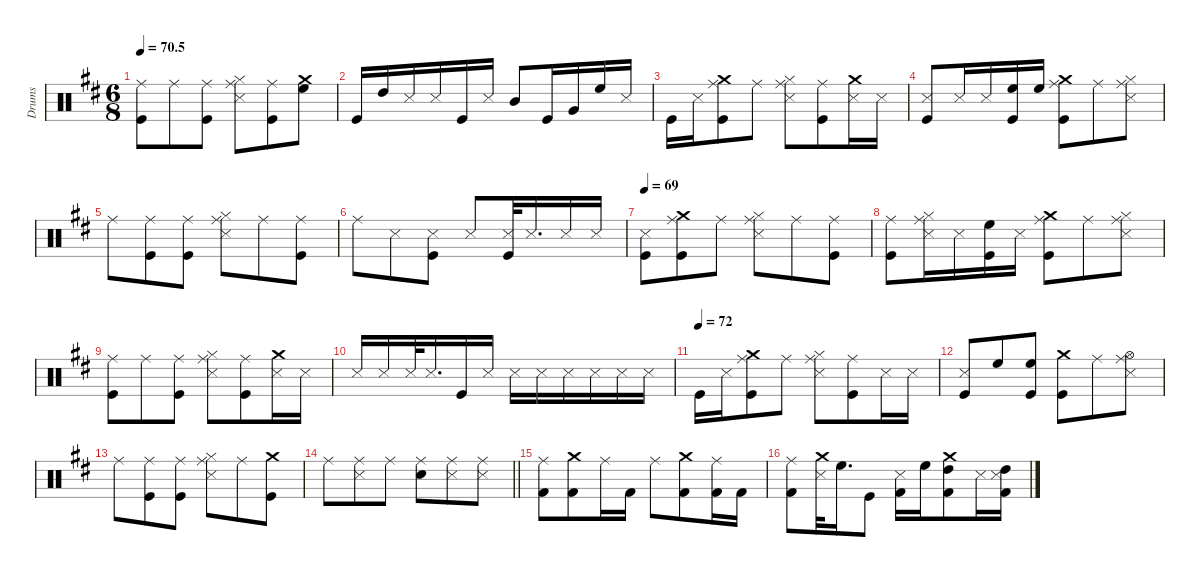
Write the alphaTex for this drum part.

\defaultSystemsLayout 4
\hideDynamics
\bracketExtendMode groupsimilarinstruments
\firstSystemTrackNameMode fullname
\otherSystemsTrackNameOrientation horizontal
\track ("Drums" "drm.") {defaultSystemsLayout 4 instrument percussion}
\staff {score}
\articulation defaults
\ts (6 8)
\tempo
70.5
\accidentals auto
\clef neutral
\ottava regular
\simile none
\ks bminor
("Kick (hit)"{acc forcenatural} "Ride (middle)"{acc #}).8{dy fff beam Down} "Ride (middle)"{acc #}.8{dy f beam Down} ("Kick (hit)"{acc forcenatural} "Ride (middle)"{acc #}).8{beam Down} ("Hi-Hat (closed)"{acc #} "Ride (middle)"{acc #} "Snare (side stick) 3"{acc forcenatural}).8{dy fff beam Down} ("Kick (hit)"{acc forcenatural} "Ride (middle)"{acc #}).8{dy f beam Down} ("High Floor Tom (hit)"{acc forcenatural} "Crash medium (hit)"{acc forcenatural}).8{dy fff beam Down} |
"Kick (hit)"{acc forcenatural}.16{dy f beam Up} "High Tom (hit)"{acc forcenatural}.16{beam Up} "Snare (side stick) 3"{acc forcenatural}.16{beam Up} "Snare (side stick) 3"{acc forcenatural}.16{dy mf beam Up} "Kick (hit)"{acc forcenatural}.16{dy f beam Up} "Snare (side stick) 3"{acc forcenatural}.16{beam Up} "Mid Tom (hit)"{acc forcenatural}.8{beam Up} "Kick (hit)"{acc forcenatural}.16{beam Up} "Very Low Tom (hit)"{acc forcenatural}.16{beam Up} "High Floor Tom (hit)"{acc forcenatural}.16{dy mp beam Up} "Snare (side stick) 3"{acc forcenatural}.16{beam Up} |
"Kick (hit)"{acc forcenatural}.16{dy f beam Down} "Snare (side stick) 3"{acc forcenatural}.16{beam Down} ("Crash medium (hit)"{acc forcenatural} "Kick (hit)"{acc forcenatural} "Ride (middle)"{acc #}).8{dy fff beam Down} "Ride (middle)"{acc #}.8{dy f beam Down} ("Snare (side stick) 3"{acc forcenatural} "Hi-Hat (closed)"{acc #} "Ride (middle)"{acc #}).8{dy fff beam Down} ("Kick (hit)"{acc forcenatural} "Ride (middle)"{acc #}).8{beam Down} ("Snare (side stick) 3"{acc forcenatural} "Crash medium (hit)"{acc forcenatural}).16{dy p beam Down} "Snare (side stick) 3"{acc forcenatural}.16{beam Down} |
("Kick (hit)"{acc forcenatural} "Snare (side stick) 3"{acc forcenatural}).8{dy f beam Up} "Snare (side stick) 3"{acc forcenatural}.16{beam Up} "Snare (side stick) 3"{acc forcenatural}.16{dy mf beam Up} ("Kick (hit)"{acc forcenatural} "High Floor Tom (hit)"{acc forcenatural}).16{dy f beam Up} "High Floor Tom (hit)"{acc forcenatural}.16{beam Up} ("Crash medium (hit)"{acc forcenatural} "Kick (hit)"{acc forcenatural} "Ride (middle)"{acc #}).8{dy fff beam Down} "Ride (middle)"{acc #}.8{dy f beam Down} ("Snare (side stick) 3"{acc forcenatural} "Hi-Hat (closed)"{acc #} "Ride (middle)"{acc #}).8{dy fff beam Down} |
"Ride (middle)"{acc #}.8{beam Down} ("Kick (hit)"{acc forcenatural} "Ride (middle)"{acc #}).8{beam Down} ("Kick (hit)"{acc forcenatural} "Ride (middle)"{acc #}).8{dy f beam Down} ("Snare (side stick) 3"{acc forcenatural} "Hi-Hat (closed)"{acc #} "Ride (middle)"{acc #}).8{dy fff beam Down} "Ride (middle)"{acc #}.8{dy mp beam Down} ("Kick (hit)"{acc forcenatural} "Ride (middle)"{acc #}).8{dy fff beam Down} |
"Ride (middle)"{acc #}.8{dy f beam Down} "Snare (side stick) 3"{acc forcenatural}.8{beam Down} ("Kick (hit)"{acc forcenatural} "Snare (side stick) 3"{acc forcenatural}).8{dy fff beam Down} "Snare (side stick) 3"{acc forcenatural}.8{beam Up} ("Kick (hit)"{acc forcenatural} "Snare (side stick) 3"{acc forcenatural}).32{dy f beam Up} "Snare (side stick) 3"{acc forcenatural}.16{d dy mf beam Up} "Snare (side stick) 3"{acc forcenatural}.16{dy f beam Up} "Snare (side stick) 3"{acc forcenatural}.16{dy mf beam Up} |
\tempo 69
("Kick (hit)"{acc forcenatural} "Snare (side stick) 3"{acc forcenatural}).8{dy f beam Down} ("Crash medium (hit)"{acc forcenatural} "Kick (hit)"{acc forcenatural} "Ride (middle)"{acc #}).8{dy fff beam Down} "Ride (middle)"{acc #}.8{dy f beam Down} ("Snare (side stick) 3"{acc forcenatural} "Hi-Hat (closed)"{acc #} "Ride (middle)"{acc #}).8{dy fff beam Down} "Ride (middle)"{acc #}.8{dy f beam Down} ("Kick (hit)"{acc forcenatural} "Ride (middle)"{acc #}).8{dy fff beam Down} |
("Kick (hit)"{acc forcenatural} "Ride (middle)"{acc #}).8{dy f beam Down} ("Hi-Hat (closed)"{acc #} "Ride (middle)"{acc #} "Snare (side stick) 3"{acc forcenatural}).16{dy fff beam Down} "Snare (side stick) 3"{acc forcenatural}.16{dy f beam Down} ("Kick (hit)"{acc forcenatural} "High Floor Tom (hit)"{acc forcenatural}).16{beam Down} "Snare (side stick) 3"{acc forcenatural}.16{beam Down} ("Crash medium (hit)"{acc forcenatural} "Kick (hit)"{acc forcenatural} "Ride (middle)"{acc #}).8{dy fff beam Down} "Ride (middle)"{acc #}.8{dy f beam Down} ("Snare (side stick) 3"{acc forcenatural} "Hi-Hat (closed)"{acc #} "Ride (middle)"{acc #}).8{dy fff beam Down} |
("Kick (hit)"{acc forcenatural} "Ride (middle)"{acc #}).8{beam Down} "Ride (middle)"{acc #}.8{dy f beam Down} ("Kick (hit)"{acc forcenatural} "Ride (middle)"{acc #}).8{beam Down} ("Snare (side stick) 3"{acc forcenatural} "Hi-Hat (closed)"{acc #} "Ride (middle)"{acc #}).8{dy fff beam Down} ("Kick (hit)"{acc forcenatural} "Ride (middle)"{acc #}).8{dy f beam Down} ("Crash medium (hit)"{acc forcenatural} "Snare (side stick) 3"{acc forcenatural}).16{dy fff beam Down} "Snare (side stick) 3"{acc forcenatural}.16{dy f beam Down} |
"Snare (side stick) 3"{acc forcenatural}.16{dy fff beam Up} "Snare (side stick) 3"{acc forcenatural}.16{dy f beam Up} "Snare (side stick) 3"{acc forcenatural}.32{dy fff beam Up} "Snare (side stick) 3"{acc forcenatural}.16{d dy ff beam Up} "Kick (hit)"{acc forcenatural}.16{dy f beam Up} "Snare (side stick) 3"{acc forcenatural}.16{beam Up} "Snare (side stick) 3"{acc forcenatural}.16{beam Down} "Snare (side stick) 3"{acc forcenatural}.16{beam Down} "Snare (side stick) 3"{acc forcenatural}.16{beam Down} "Snare (side stick) 3"{acc forcenatural}.16{dy mf beam Down} "Snare (side stick) 3"{acc forcenatural}.16{dy f beam Down} "Snare (side stick) 3"{acc forcenatural}.16{dy mp beam Down} |
\tempo (72)
"Kick (hit)"{acc forcenatural}.16{dy f beam Down} "Snare (side stick) 3"{acc forcenatural}.16{beam Down} ("Crash medium (hit)"{acc forcenatural} "Kick (hit)"{acc forcenatural} "Ride (middle)"{acc #}).8{dy fff beam Down} "Ride (middle)"{acc #}.8{dy f beam Down} ("Snare (side stick) 3"{acc forcenatural} "Hi-Hat (closed)"{acc #} "Ride (middle)"{acc #}).8{dy fff beam Down} ("Kick (hit)"{acc forcenatural} "Ride (middle)"{acc #}).8{beam Down} "Snare (side stick) 3"{acc forcenatural}.16{beam Down} "Snare (side stick) 3"{acc forcenatural}.16{dy f beam Down} |
("Kick (hit)"{acc forcenatural} "Snare (side stick) 3"{acc forcenatural}).8{beam Up} "High Floor Tom (hit)"{acc forcenatural}.8{dy fff beam Up} ("Kick (hit)"{acc forcenatural} "High Floor Tom (hit)"{acc forcenatural}).8{dy f beam Up} ("Crash medium (hit)"{acc forcenatural} "Kick (hit)"{acc forcenatural}).8{dy fff beam Down} "Ride (middle)"{acc #}.8{dy f beam Down} ("Snare (side stick) 3"{acc forcenatural} "Hi-Hat (open)"{acc #} "Ride (middle)"{acc #}).8{dy fff beam Down} |
"Ride (middle)"{acc #}.8{dy mf beam Down} ("Kick (hit)"{acc forcenatural} "Ride (middle)"{acc #}).8{dy fff beam Down} ("Kick (hit)"{acc forcenatural} "Ride (middle)"{acc #}).8{dy f beam Down} ("Snare (side stick) 3"{acc forcenatural} "Hi-Hat (closed)"{acc #} "Ride (middle)"{acc #}).8{dy fff beam Down} "Ride (middle)"{acc #}.8{dy mp beam Down} ("Kick (hit)"{acc forcenatural} "Crash medium (hit)"{acc forcenatural}).8{dy f beam Down} |
\barLineRight lightlight "Ride (middle)"{acc #}.8{dy ff beam Down}
("Ride (middle)"{acc #} "Snare (side stick) 3"{acc forcenatural}).8{beam Down} "Ride (middle)"{acc #}.8{dy f beam Down} ("Snare (hit) 2"{acc forcenatural} "Ride (middle)"{acc #}).8{beam Down} ("Snare (side stick) 3"{acc forcenatural} "Ride (middle)"{acc #}).8{beam Down} ("Snare (side stick) 3"{acc forcenatural} "Ride (middle)"{acc #}).8{beam Down} |
("Kick (hit) 2"{acc forcenatural} "Ride (middle)"{acc #}).8{beam Down} ("Crash medium (hit)"{acc forcenatural} "Kick (hit) 2"{acc forcenatural}).8{dy ff beam Down} "Ride (middle)"{acc #}.16{beam Down} "Kick (hit) 2"{acc forcenatural}.16{beam Down} "Ride (middle)"{acc #}.8{beam Down} ("Kick (hit) 2"{acc forcenatural} "Crash medium (hit)"{acc forcenatural}).8{beam Down} ("Kick (hit) 2"{acc forcenatural} "Ride (middle)"{acc #}).16{beam Down} "Kick (hit) 2"{acc forcenatural}.16{beam Down} |
("Kick (hit) 2"{acc forcenatural} "Ride (middle)"{acc #}).8{beam Down} ("Crash medium (hit)"{acc forcenatural} "Snare (side stick) 3"{acc forcenatural}).32{beam Down} "High Floor Tom (hit)"{acc forcenatural}.16{d dy f beam Down} "Kick (hit)"{acc forcenatural}.8{dy fff beam Down} ("Kick (hit) 2"{acc forcenatural} "Snare (side stick) 3"{acc forcenatural}).16{dy f beam Down} "High Floor Tom (hit)"{acc forcenatural}.16{dy mp beam Down} ("Kick (hit) 2"{acc forcenatural} "High Tom (hit)"{acc forcenatural} "Crash medium (hit)"{acc forcenatural}).8{dy f beam Down} "Snare (side stick) 3"{acc forcenatural}.16{beam Down} ("Kick (hit) 2"{acc forcenatural} "High Tom (hit)"{acc forcenatural} "Snare (side stick) 3"{acc forcenatural}).16{beam Down}
